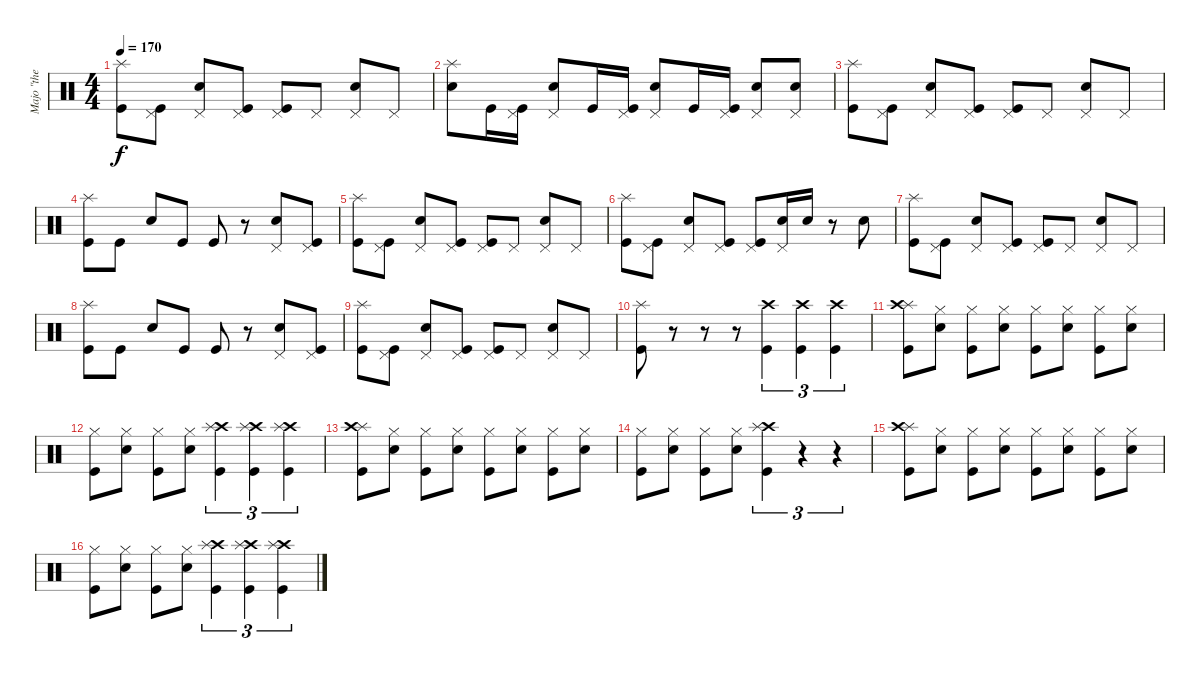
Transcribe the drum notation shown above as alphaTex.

\track ("Majo \"the Dremmel\" Hirt" "Majo \"the ") {instrument percussion}
\staff {score}
\articulation defaults
\ts (4 4)
\tempo 170
\clef neutral
\ks c
("Splash (hit)" "Kick (hit)").8{dy f} ("Pedal Hi-Hat (hit)" "Kick (hit)").8 ("Pedal Hi-Hat (hit)" "Electric Snare (hit)").8 ("Pedal Hi-Hat (hit)" "Kick (hit)").8 ("Pedal Hi-Hat (hit)" "Kick (hit)").8 "Pedal Hi-Hat (hit)".8 ("Pedal Hi-Hat (hit)" "Electric Snare (hit)").8 "Pedal Hi-Hat (hit)".8 |
("Splash (hit)" "Electric Snare (hit)").8 "Kick (hit)".16 ("Pedal Hi-Hat (hit)" "Kick (hit)").16 ("Pedal Hi-Hat (hit)" "Electric Snare (hit)").8 "Kick (hit)".16 ("Pedal Hi-Hat (hit)" "Kick (hit)").16 ("Pedal Hi-Hat (hit)" "Electric Snare (hit)").8 "Kick (hit)".16 ("Pedal Hi-Hat (hit)" "Kick (hit)").16 ("Pedal Hi-Hat (hit)" "Electric Snare (hit)").8 ("Pedal Hi-Hat (hit)" "Electric Snare (hit)").8 |
("Splash (hit)" "Kick (hit)").8 ("Pedal Hi-Hat (hit)" "Kick (hit)").8 ("Pedal Hi-Hat (hit)" "Electric Snare (hit)").8 ("Pedal Hi-Hat (hit)" "Kick (hit)").8 ("Pedal Hi-Hat (hit)" "Kick (hit)").8 "Pedal Hi-Hat (hit)".8 ("Pedal Hi-Hat (hit)" "Electric Snare (hit)").8 "Pedal Hi-Hat (hit)".8 |
("Splash (hit)" "Kick (hit)").8 "Kick (hit)".8 "Electric Snare (hit)".8 "Kick (hit)".8 "Kick (hit)".8 r.8 ("Pedal Hi-Hat (hit)" "Electric Snare (hit)").8 ("Pedal Hi-Hat (hit)" "Kick (hit)").8 |
("Splash (hit)" "Kick (hit)").8 ("Pedal Hi-Hat (hit)" "Kick (hit)").8 ("Pedal Hi-Hat (hit)" "Electric Snare (hit)").8 ("Pedal Hi-Hat (hit)" "Kick (hit)").8 ("Pedal Hi-Hat (hit)" "Kick (hit)").8 "Pedal Hi-Hat (hit)".8 ("Pedal Hi-Hat (hit)" "Electric Snare (hit)").8 "Pedal Hi-Hat (hit)".8 |
("Splash (hit)" "Kick (hit)").8 ("Pedal Hi-Hat (hit)" "Kick (hit)").8 ("Pedal Hi-Hat (hit)" "Electric Snare (hit)").8 ("Pedal Hi-Hat (hit)" "Kick (hit)").8 ("Pedal Hi-Hat (hit)" "Kick (hit)").8 ("Pedal Hi-Hat (hit)" "Electric Snare (hit)").16 "Electric Snare (hit)".16 r.8 "Electric Snare (hit)".8 |
("Splash (hit)" "Kick (hit)").8 ("Pedal Hi-Hat (hit)" "Kick (hit)").8 ("Pedal Hi-Hat (hit)" "Electric Snare (hit)").8 ("Pedal Hi-Hat (hit)" "Kick (hit)").8 ("Pedal Hi-Hat (hit)" "Kick (hit)").8 "Pedal Hi-Hat (hit)".8 ("Pedal Hi-Hat (hit)" "Electric Snare (hit)").8 "Pedal Hi-Hat (hit)".8 |
("Splash (hit)" "Kick (hit)").8 "Kick (hit)".8 "Electric Snare (hit)".8 "Kick (hit)".8 "Kick (hit)".8 r.8 ("Pedal Hi-Hat (hit)" "Electric Snare (hit)").8 ("Pedal Hi-Hat (hit)" "Kick (hit)").8 |
("Splash (hit)" "Kick (hit)").8 ("Pedal Hi-Hat (hit)" "Kick (hit)").8 ("Pedal Hi-Hat (hit)" "Electric Snare (hit)").8 ("Pedal Hi-Hat (hit)" "Kick (hit)").8 ("Pedal Hi-Hat (hit)" "Kick (hit)").8 "Pedal Hi-Hat (hit)".8 ("Pedal Hi-Hat (hit)" "Electric Snare (hit)").8 "Pedal Hi-Hat (hit)".8 |
("Splash (hit)" "Kick (hit)").8 r.8 r.8 r.8 ("Crash high (hit)" "Kick (hit)").4{tu (3 2)} ("Crash high (hit)" "Kick (hit)").4{tu (3 2)} ("Crash high (hit)" "Kick (hit)").4{tu (3 2)} |
("Splash (hit)" "Crash high (hit)" "Kick (hit)").8 ("Hi-Hat (closed)" "Electric Snare (hit)").8 ("Hi-Hat (closed)" "Kick (hit)").8 ("Hi-Hat (closed)" "Electric Snare (hit)").8 ("Hi-Hat (closed)" "Kick (hit)").8 ("Hi-Hat (closed)" "Electric Snare (hit)").8 ("Hi-Hat (closed)" "Kick (hit)").8 ("Hi-Hat (closed)" "Electric Snare (hit)").8 |
("Hi-Hat (closed)" "Kick (hit)").8 ("Hi-Hat (closed)" "Electric Snare (hit)").8 ("Hi-Hat (closed)" "Kick (hit)").8 ("Hi-Hat (closed)" "Electric Snare (hit)").8 ("Crash high (hit)" "Splash (hit)" "Kick (hit)").4{tu (3 2)} ("Crash high (hit)" "Splash (hit)" "Kick (hit)").4{tu (3 2)} ("Crash high (hit)" "Splash (hit)" "Kick (hit)").4{tu (3 2)} |
("Splash (hit)" "Crash high (hit)" "Kick (hit)").8 ("Hi-Hat (closed)" "Electric Snare (hit)").8 ("Hi-Hat (closed)" "Kick (hit)").8 ("Hi-Hat (closed)" "Electric Snare (hit)").8 ("Hi-Hat (closed)" "Kick (hit)").8 ("Hi-Hat (closed)" "Electric Snare (hit)").8 ("Hi-Hat (closed)" "Kick (hit)").8 ("Hi-Hat (closed)" "Electric Snare (hit)").8 |
("Hi-Hat (closed)" "Kick (hit)").8 ("Hi-Hat (closed)" "Electric Snare (hit)").8 ("Hi-Hat (closed)" "Kick (hit)").8 ("Hi-Hat (closed)" "Electric Snare (hit)").8 ("Crash high (hit)" "Splash (hit)" "Kick (hit)").4{tu (3 2)} r.4{tu (3 2)} r.4{tu (3 2)} |
("Splash (hit)" "Crash high (hit)" "Kick (hit)").8 ("Hi-Hat (closed)" "Electric Snare (hit)").8 ("Hi-Hat (closed)" "Kick (hit)").8 ("Hi-Hat (closed)" "Electric Snare (hit)").8 ("Hi-Hat (closed)" "Kick (hit)").8 ("Hi-Hat (closed)" "Electric Snare (hit)").8 ("Hi-Hat (closed)" "Kick (hit)").8 ("Hi-Hat (closed)" "Electric Snare (hit)").8 |
("Hi-Hat (closed)" "Kick (hit)").8 ("Hi-Hat (closed)" "Electric Snare (hit)").8 ("Hi-Hat (closed)" "Kick (hit)").8 ("Hi-Hat (closed)" "Electric Snare (hit)").8 ("Crash high (hit)" "Splash (hit)" "Kick (hit)").4{tu (3 2)} ("Crash high (hit)" "Splash (hit)" "Kick (hit)").4{tu (3 2)} ("Crash high (hit)" "Splash (hit)" "Kick (hit)").4{tu (3 2)}
